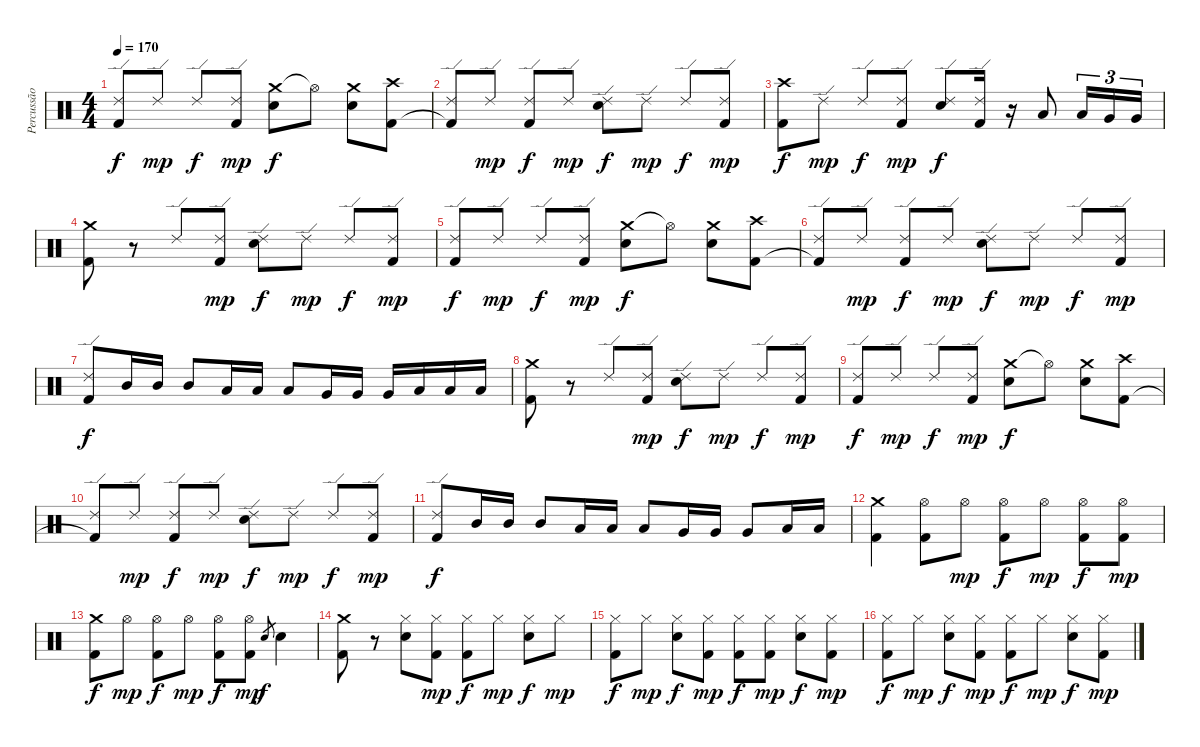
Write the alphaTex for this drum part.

\track ("Percussão" "Percussão") {instrument percussion}
\staff {score}
\articulation defaults
\ts (4 4)
\tempo 170
\clef neutral
\ks c
("Ride (edge) 2" "Kick (hit) 2").8{dy f} "Ride (edge) 2".8{dy mp} "Ride (edge) 2".8{dy f} ("Ride (edge) 2" "Kick (hit) 2").8{dy mp} ("Crash medium (hit)" "Electric Snare (hit)").8{dy f} "Hi-Hat (open)"{t}.8 ("Crash medium (hit)" "Electric Snare (hit)").8 ("Crash high (hit)" "Kick (hit) 2").8 |
("Ride (edge) 2" "Kick (hit) 2"{t}).8 "Ride (edge) 2".8{dy mp} ("Ride (edge) 2" "Kick (hit) 2").8{dy f} "Ride (edge) 2".8{dy mp} ("Ride (edge) 2" "Electric Snare (hit)").8{dy f} "Ride (edge) 2".8{dy mp} "Ride (edge) 2".8{dy f} ("Ride (edge) 2" "Kick (hit) 2").8{dy mp} |
("Crash high (hit)" "Kick (hit) 2").8{dy f} "Ride (edge) 2".8{dy mp} "Ride (edge) 2".8{dy f} ("Ride (edge) 2" "Kick (hit) 2").8{dy mp} ("Ride (edge) 2" "Electric Snare (hit)").8{dy f} ("Ride (edge) 2" "Kick (hit) 2").16 r.16 "Low Tom (hit)".8 "Low Tom (hit)".16{tu (3 2)} "Very Low Tom (hit)".16{tu (3 2)} "Very Low Tom (hit)".16{tu (3 2)} |
("Crash medium (hit)" "Kick (hit) 2").8 r.8 "Ride (edge) 2".8 ("Ride (edge) 2" "Kick (hit) 2").8{dy mp} ("Ride (edge) 2" "Electric Snare (hit)").8{dy f} "Ride (edge) 2".8{dy mp} "Ride (edge) 2".8{dy f} ("Ride (edge) 2" "Kick (hit) 2").8{dy mp} |
("Ride (edge) 2" "Kick (hit) 2").8{dy f} "Ride (edge) 2".8{dy mp} "Ride (edge) 2".8{dy f} ("Ride (edge) 2" "Kick (hit) 2").8{dy mp} ("Crash medium (hit)" "Electric Snare (hit)").8{dy f} "Hi-Hat (open)"{t}.8 ("Crash medium (hit)" "Electric Snare (hit)").8 ("Crash high (hit)" "Kick (hit) 2").8 |
("Ride (edge) 2" "Kick (hit) 2"{t}).8 "Ride (edge) 2".8{dy mp} ("Ride (edge) 2" "Kick (hit) 2").8{dy f} "Ride (edge) 2".8{dy mp} ("Ride (edge) 2" "Electric Snare (hit)").8{dy f} "Ride (edge) 2".8{dy mp} "Ride (edge) 2".8{dy f} ("Ride (edge) 2" "Kick (hit) 2").8{dy mp} |
("Ride (edge) 2" "Kick (hit) 2").8{dy f} "Mid Tom (hit)".16 "Mid Tom (hit)".16 "Mid Tom (hit)".8 "Low Tom (hit)".16 "Low Tom (hit)".16 "Low Tom (hit)".8 "Very Low Tom (hit)".16 "Very Low Tom (hit)".16 "Very Low Tom (hit)".16 "Low Floor Tom (hit)".16 "Low Floor Tom (hit)".16 "Low Floor Tom (hit)".16 |
("Crash medium (hit)" "Kick (hit) 2").8 r.8 "Ride (edge) 2".8 ("Ride (edge) 2" "Kick (hit) 2").8{dy mp} ("Ride (edge) 2" "Electric Snare (hit)").8{dy f} "Ride (edge) 2".8{dy mp} "Ride (edge) 2".8{dy f} ("Ride (edge) 2" "Kick (hit) 2").8{dy mp} |
("Ride (edge) 2" "Kick (hit) 2").8{dy f} "Ride (edge) 2".8{dy mp} "Ride (edge) 2".8{dy f} ("Ride (edge) 2" "Kick (hit) 2").8{dy mp} ("Crash medium (hit)" "Electric Snare (hit)").8{dy f} "Hi-Hat (open)"{t}.8 ("Crash medium (hit)" "Electric Snare (hit)").8 ("Crash high (hit)" "Kick (hit) 2").8 |
("Ride (edge) 2" "Kick (hit) 2"{t}).8 "Ride (edge) 2".8{dy mp} ("Ride (edge) 2" "Kick (hit) 2").8{dy f} "Ride (edge) 2".8{dy mp} ("Ride (edge) 2" "Electric Snare (hit)").8{dy f} "Ride (edge) 2".8{dy mp} "Ride (edge) 2".8{dy f} ("Ride (edge) 2" "Kick (hit) 2").8{dy mp} |
("Ride (edge) 2" "Kick (hit) 2").8{dy f} "Mid Tom (hit)".16 "Mid Tom (hit)".16 "Mid Tom (hit)".8 "Low Tom (hit)".16 "Low Tom (hit)".16 "Low Tom (hit)".8 "Very Low Tom (hit)".16 "Very Low Tom (hit)".16 "Very Low Tom (hit)".8 "Low Floor Tom (hit)".16 "Low Floor Tom (hit)".16 |
("Crash medium (hit)" "Kick (hit) 2").4 ("Hi-Hat (open)" "Kick (hit) 2").8 "Hi-Hat (open)".8{dy mp} ("Hi-Hat (open)" "Kick (hit) 2").8{dy f} "Hi-Hat (open)".8{dy mp} ("Hi-Hat (open)" "Kick (hit) 2").8{dy f} ("Hi-Hat (open)" "Kick (hit) 2").8{dy mp} |
("Crash medium (hit)" "Kick (hit) 2").8{dy f} "Hi-Hat (open)".8{dy mp} ("Hi-Hat (open)" "Kick (hit) 2").8{dy f} "Hi-Hat (open)".8{dy mp} ("Hi-Hat (open)" "Kick (hit) 2").8{dy f} ("Hi-Hat (open)" "Kick (hit) 2").8{dy mp} "Electric Snare (hit)".8{gr dy f} "Electric Snare (hit)".4 |
("Crash medium (hit)" "Kick (hit) 2").8 r.8 ("Hi-Hat (closed)" "Electric Snare (hit)").8 ("Hi-Hat (closed)" "Kick (hit) 2").8{dy mp} ("Hi-Hat (closed)" "Kick (hit) 2").8{dy f} "Hi-Hat (closed)".8{dy mp} ("Hi-Hat (closed)" "Electric Snare (hit)").8{dy f} "Hi-Hat (closed)".8{dy mp} |
("Hi-Hat (closed)" "Kick (hit) 2").8{dy f} "Hi-Hat (closed)".8{dy mp} ("Hi-Hat (closed)" "Electric Snare (hit)").8{dy f} ("Hi-Hat (closed)" "Kick (hit) 2").8{dy mp} ("Hi-Hat (closed)" "Kick (hit) 2").8{dy f} ("Hi-Hat (closed)" "Kick (hit) 2").8{dy mp} ("Hi-Hat (closed)" "Electric Snare (hit)").8{dy f} ("Hi-Hat (closed)" "Kick (hit) 2").8{dy mp} |
("Hi-Hat (closed)" "Kick (hit) 2").8{dy f} "Hi-Hat (closed)".8{dy mp} ("Hi-Hat (closed)" "Electric Snare (hit)").8{dy f} ("Hi-Hat (closed)" "Kick (hit) 2").8{dy mp} ("Hi-Hat (closed)" "Kick (hit) 2").8{dy f} "Hi-Hat (closed)".8{dy mp} ("Hi-Hat (closed)" "Electric Snare (hit)").8{dy f} ("Hi-Hat (closed)" "Kick (hit) 2").8{dy mp}
